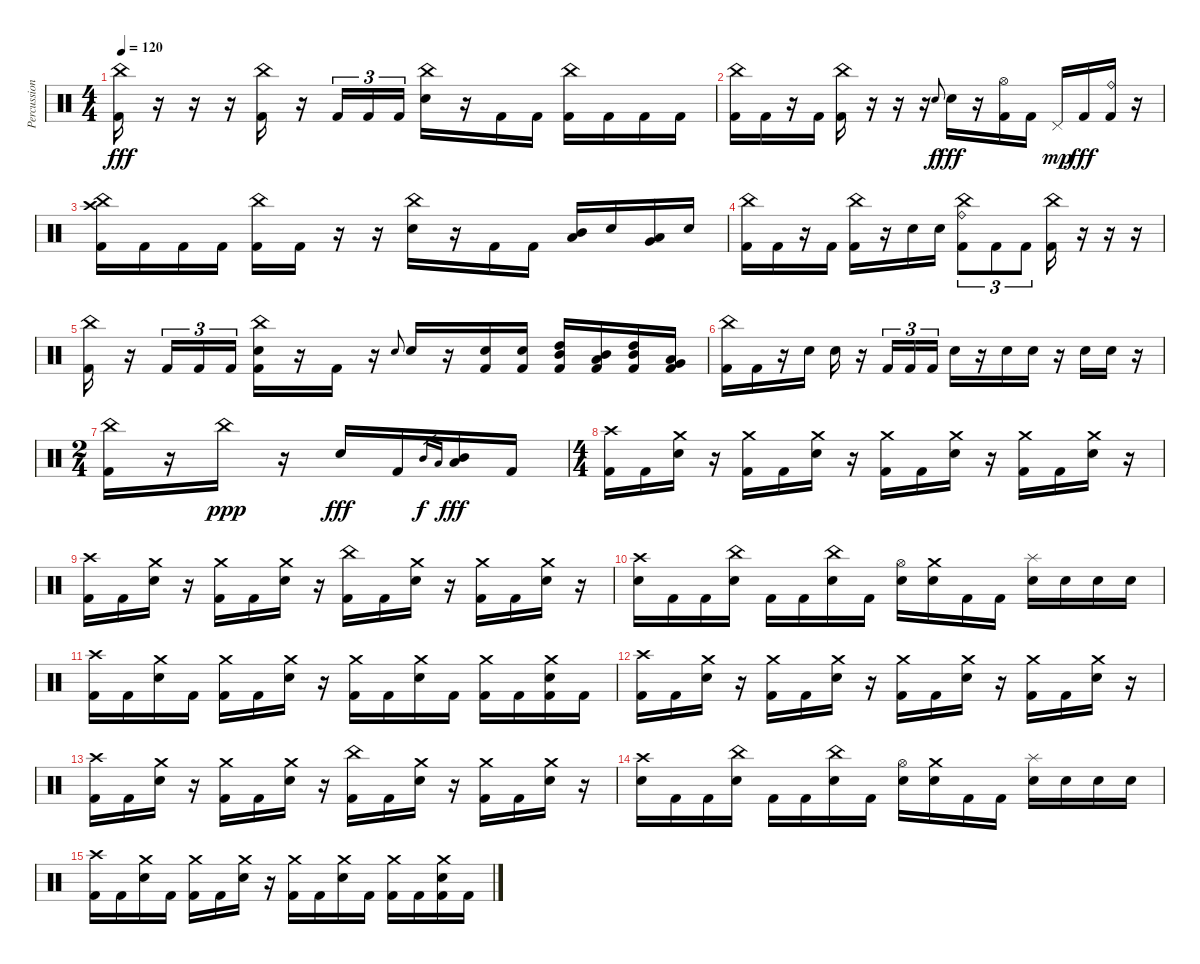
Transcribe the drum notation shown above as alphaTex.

\track ("Percussion" "Percussion") {instrument percussion}
\staff {score}
\articulation defaults
\ts (4 4)
\tempo 120
\clef neutral
\ks c
("China (hit)" "Kick (hit) 2").16{dy fff} r.16 r.16 r.16 ("China (hit)" "Kick (hit) 2").16 r.16 "Kick (hit) 2".16{tu (3 2)} "Kick (hit) 2".16{tu (3 2)} "Kick (hit) 2".16{tu (3 2)} ("China (hit)" "Electric Snare (hit)").16 r.16 "Kick (hit) 2".16 "Kick (hit) 2".16 ("China (hit)" "Kick (hit) 2").16 "Kick (hit) 2".16 "Kick (hit) 2".16 "Kick (hit) 2".16 |
("China (hit)" "Kick (hit) 2").16 "Kick (hit) 2".16 r.16 "Kick (hit) 2".16 ("China (hit)" "Kick (hit) 2").16 r.16 r.16 r.16 "Electric Snare (hit)"{x}.8{gr onbeat dy f} "Electric Snare (hit)".16{dy fff} r.16 ("Hi-Hat (open)" "Kick (hit) 2").16 "Kick (hit) 2".16 "Pedal Hi-Hat (hit)".16{dy mp} "Kick (hit) 2".16{dy fff} ("Ride (bell)" "Kick (hit) 2").16 r.16 |
("Crash high (hit)" "China (hit)" "Kick (hit) 2").16 "Kick (hit) 2".16 "Kick (hit) 2".16 "Kick (hit) 2".16 ("China (hit)" "Kick (hit) 2").16 "Kick (hit) 2".16 r.16 r.16 ("China (hit)" "Electric Snare (hit)").16 r.16 "Kick (hit) 2".16 "Kick (hit) 2".16 ("Low Tom (hit)" "Mid Tom (hit)").16 "Electric Snare (hit)".16 ("Very Low Tom (hit)" "Low Tom (hit)").16 "Electric Snare (hit)".16 |
("China (hit)" "Kick (hit) 2").16 "Kick (hit) 2".16 r.16 "Kick (hit) 2".16 ("China (hit)" "Kick (hit) 2").16 r.16 "Electric Snare (hit)".16 "Electric Snare (hit)".16 ("China (hit)" "Ride (bell)" "Kick (hit) 2").8{tu (3 2)} "Kick (hit) 2".8{tu (3 2)} "Kick (hit) 2".8{tu (3 2)} ("China (hit)" "Kick (hit) 2").16 r.16 r.16 r.16 |
("China (hit)" "Kick (hit) 2").16 r.16 "Kick (hit) 2".16{tu (3 2)} "Kick (hit) 2".16{tu (3 2)} "Kick (hit) 2".16{tu (3 2)} ("China (hit)" "Electric Snare (hit)" "Kick (hit) 2").16 r.16 "Kick (hit) 2".16 r.16 "Electric Snare (hit)"{x}.8{gr onbeat} "Electric Snare (hit)".16 r.16 ("Electric Snare (hit)" "Kick (hit) 2").16 ("Electric Snare (hit)" "Kick (hit) 2").16 ("Mid Tom (hit)" "High Tom (hit)" "Kick (hit) 2").16 ("Low Tom (hit)" "Mid Tom (hit)" "Kick (hit) 2").16 ("Mid Tom (hit)" "High Tom (hit)" "Kick (hit) 2").16 ("Very Low Tom (hit)" "Low Tom (hit)" "Kick (hit) 2").16 |
("China (hit)" "Kick (hit) 2").16 "Kick (hit) 2".16 r.16 "Electric Snare (hit)".16 "Electric Snare (hit)".16 r.16 "Kick (hit) 2".16{tu (3 2)} "Kick (hit) 2".16{tu (3 2)} "Kick (hit) 2".16{tu (3 2)} "Electric Snare (hit)".16 r.16 "Electric Snare (hit)".16 "Electric Snare (hit)".16 r.16 "Electric Snare (hit)".16 "Electric Snare (hit)".16 r.16 |
\ts (2 4)
("China (hit)" "Kick (hit) 2").16 r.16 "China (hit)".16{dy ppp} r.16 "Electric Snare (hit)".16{dy fff} "Kick (hit) 2".16 "Mid Tom (hit)"{x}.16{gr dy f} "Low Tom (hit)"{x}.16{gr} ("Mid Tom (hit)" "Low Tom (hit)").16{dy fff} "Kick (hit) 2".16 |
\ts (4 4)
("Crash high (hit)" "Kick (hit) 2").16 "Kick (hit) 2".16 ("Crash medium (hit)" "Electric Snare (hit)").16 r.16 ("Crash medium (hit)" "Kick (hit) 2").16 "Kick (hit) 2".16 ("Crash medium (hit)" "Electric Snare (hit)").16 r.16 ("Crash medium (hit)" "Kick (hit) 2").16 "Kick (hit) 2".16 ("Crash medium (hit)" "Electric Snare (hit)").16 r.16 ("Crash medium (hit)" "Kick (hit) 2").16 "Kick (hit) 2".16 ("Crash medium (hit)" "Electric Snare (hit)").16 r.16 |
("Crash high (hit)" "Kick (hit) 2").16 "Kick (hit) 2".16 ("Crash medium (hit)" "Electric Snare (hit)").16 r.16 ("Crash medium (hit)" "Kick (hit) 2").16 "Kick (hit) 2".16 ("Crash medium (hit)" "Electric Snare (hit)").16 r.16 ("China (hit)" "Kick (hit) 2").16 "Kick (hit) 2".16 ("Crash medium (hit)" "Electric Snare (hit)").16 r.16 ("Crash medium (hit)" "Kick (hit) 2").16 "Kick (hit) 2".16 ("Crash medium (hit)" "Electric Snare (hit)").16 r.16 |
("Crash high (hit)" "Electric Snare (hit)").16 "Kick (hit) 2".16 "Kick (hit) 2".16 ("China (hit)" "Electric Snare (hit)").16 "Kick (hit) 2".16 "Kick (hit) 2".16 ("China (hit)" "Electric Snare (hit)").16 "Kick (hit) 2".16 ("Hi-Hat (open)" "Electric Snare (hit)").16 ("Crash medium (hit)" "Electric Snare (hit)").16 "Kick (hit) 2".16 "Kick (hit) 2".16 ("Splash (hit)" "Electric Snare (hit)").16 "Electric Snare (hit)".16 "Electric Snare (hit)".16 "Electric Snare (hit)".16 |
("Crash high (hit)" "Kick (hit) 2").16 "Kick (hit) 2".16 ("Crash medium (hit)" "Electric Snare (hit)").16 "Kick (hit) 2".16 ("Crash medium (hit)" "Kick (hit) 2").16 "Kick (hit) 2".16 ("Crash medium (hit)" "Electric Snare (hit)").16 r.16 ("Crash medium (hit)" "Kick (hit) 2").16 "Kick (hit) 2".16 ("Crash medium (hit)" "Electric Snare (hit)").16 "Kick (hit) 2".16 ("Crash medium (hit)" "Kick (hit) 2").16 "Kick (hit) 2".16 ("Crash medium (hit)" "Electric Snare (hit)" "Kick (hit) 2").16 "Kick (hit) 2".16 |
("Crash high (hit)" "Kick (hit) 2").16 "Kick (hit) 2".16 ("Crash medium (hit)" "Electric Snare (hit)").16 r.16 ("Crash medium (hit)" "Kick (hit) 2").16 "Kick (hit) 2".16 ("Crash medium (hit)" "Electric Snare (hit)").16 r.16 ("Crash medium (hit)" "Kick (hit) 2").16 "Kick (hit) 2".16 ("Crash medium (hit)" "Electric Snare (hit)").16 r.16 ("Crash medium (hit)" "Kick (hit) 2").16 "Kick (hit) 2".16 ("Crash medium (hit)" "Electric Snare (hit)").16 r.16 |
("Crash high (hit)" "Kick (hit) 2").16 "Kick (hit) 2".16 ("Crash medium (hit)" "Electric Snare (hit)").16 r.16 ("Crash medium (hit)" "Kick (hit) 2").16 "Kick (hit) 2".16 ("Crash medium (hit)" "Electric Snare (hit)").16 r.16 ("China (hit)" "Kick (hit) 2").16 "Kick (hit) 2".16 ("Crash medium (hit)" "Electric Snare (hit)").16 r.16 ("Crash medium (hit)" "Kick (hit) 2").16 "Kick (hit) 2".16 ("Crash medium (hit)" "Electric Snare (hit)").16 r.16 |
("Crash high (hit)" "Electric Snare (hit)").16 "Kick (hit) 2".16 "Kick (hit) 2".16 ("China (hit)" "Electric Snare (hit)").16 "Kick (hit) 2".16 "Kick (hit) 2".16 ("China (hit)" "Electric Snare (hit)").16 "Kick (hit) 2".16 ("Hi-Hat (open)" "Electric Snare (hit)").16 ("Crash medium (hit)" "Electric Snare (hit)").16 "Kick (hit) 2".16 "Kick (hit) 2".16 ("Splash (hit)" "Electric Snare (hit)").16 "Electric Snare (hit)".16 "Electric Snare (hit)".16 "Electric Snare (hit)".16 |
("Crash high (hit)" "Kick (hit) 2").16 "Kick (hit) 2".16 ("Crash medium (hit)" "Electric Snare (hit)").16 "Kick (hit) 2".16 ("Crash medium (hit)" "Kick (hit) 2").16 "Kick (hit) 2".16 ("Crash medium (hit)" "Electric Snare (hit)").16 r.16 ("Crash medium (hit)" "Kick (hit) 2").16 "Kick (hit) 2".16 ("Crash medium (hit)" "Electric Snare (hit)").16 "Kick (hit) 2".16 ("Crash medium (hit)" "Kick (hit) 2").16 "Kick (hit) 2".16 ("Crash medium (hit)" "Electric Snare (hit)" "Kick (hit) 2").16 "Kick (hit) 2".16
